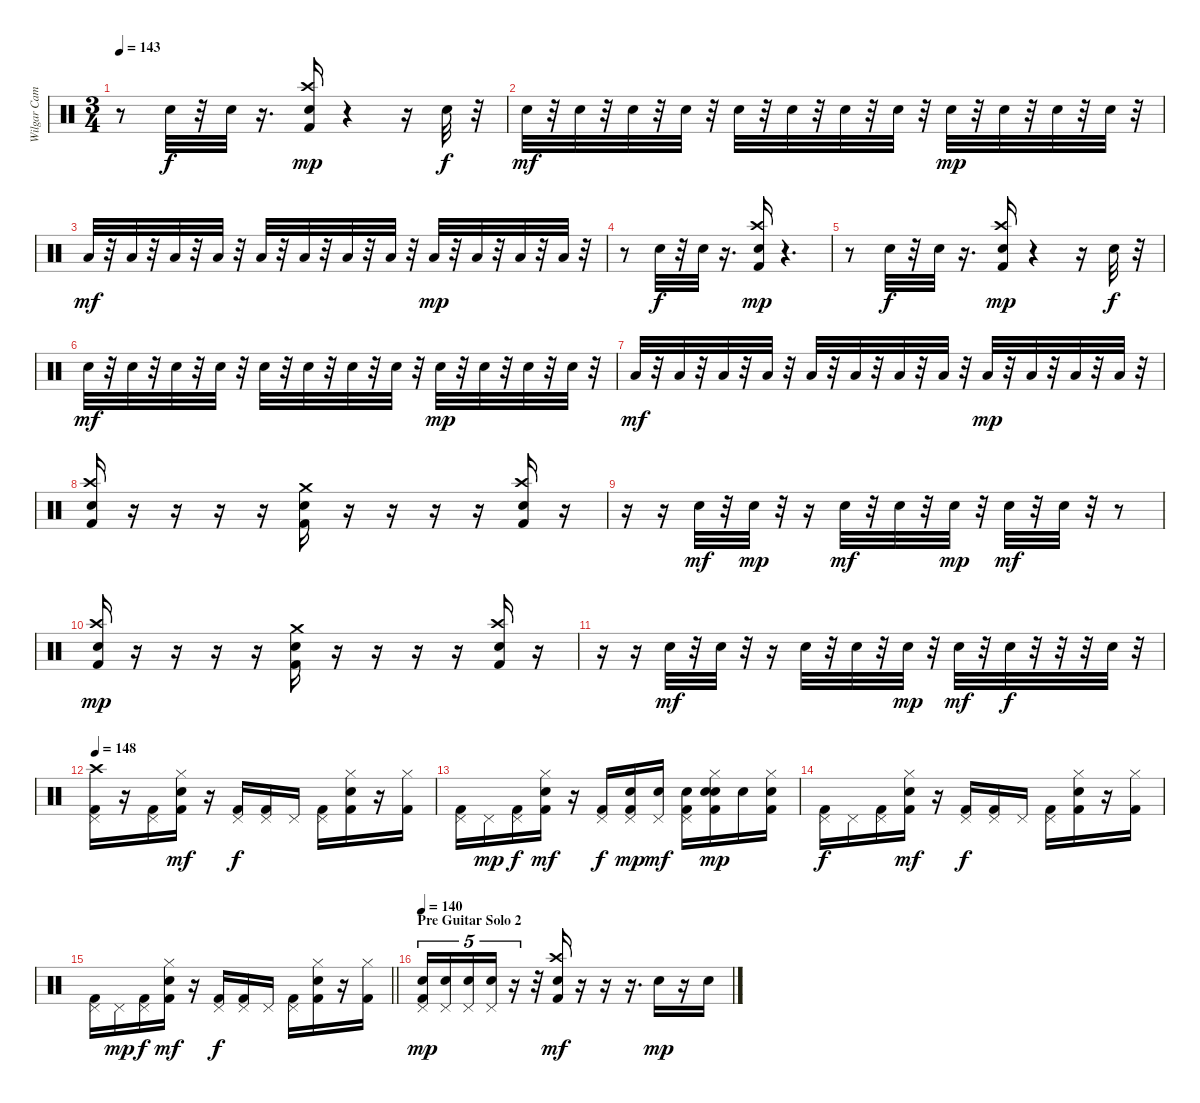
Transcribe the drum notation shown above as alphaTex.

\track ("Wilgar Campbell" "Wilgar Cam") {instrument percussion}
\staff {score}
\articulation defaults
\ts (3 4)
\tempo 143
\clef neutral
\ks c
r.8{dy mp} "Snare (hit) 2".32{dy f} r.32 "Snare (hit) 2".32 r.16{d} ("Crash high (hit)" "Snare (hit) 2" "Kick (hit) 2").16{dy mp} r.4 r.16 "Snare (hit) 2".32{dy f} r.32 |
"Snare (hit) 2".32{dy mf} r.32 "Snare (hit) 2".32 r.32 "Snare (hit) 2".32 r.32 "Snare (hit) 2".32 r.32 "Snare (hit) 2".32 r.32 "Snare (hit) 2".32 r.32 "Snare (hit) 2".32 r.32 "Snare (hit) 2".32 r.32 "Snare (hit) 2".32{dy mp} r.32 "Snare (hit) 2".32 r.32 "Snare (hit) 2".32 r.32 "Snare (hit) 2".32 r.32 |
"Low Tom (hit)".32{dy mf} r.32 "Low Tom (hit)".32 r.32 "Low Tom (hit)".32 r.32 "Low Tom (hit)".32 r.32 "Low Tom (hit)".32 r.32 "Low Tom (hit)".32 r.32 "Low Tom (hit)".32 r.32 "Low Tom (hit)".32 r.32 "Low Tom (hit)".32{dy mp} r.32 "Low Tom (hit)".32 r.32 "Low Tom (hit)".32 r.32 "Low Tom (hit)".32 r.32 |
r.8 "Snare (hit) 2".32{dy f} r.32 "Snare (hit) 2".32 r.16{d} ("Crash high (hit)" "Snare (hit) 2" "Kick (hit) 2").16{dy mp} r.4{d} |
r.8 "Snare (hit) 2".32{dy f} r.32 "Snare (hit) 2".32 r.16{d} ("Crash high (hit)" "Snare (hit) 2" "Kick (hit) 2").16{dy mp} r.4 r.16 "Snare (hit) 2".32{dy f} r.32 |
"Snare (hit) 2".32{dy mf} r.32 "Snare (hit) 2".32 r.32 "Snare (hit) 2".32 r.32 "Snare (hit) 2".32 r.32 "Snare (hit) 2".32 r.32 "Snare (hit) 2".32 r.32 "Snare (hit) 2".32 r.32 "Snare (hit) 2".32 r.32 "Snare (hit) 2".32{dy mp} r.32 "Snare (hit) 2".32 r.32 "Snare (hit) 2".32 r.32 "Snare (hit) 2".32 r.32 |
"Low Tom (hit)".32{dy mf} r.32 "Low Tom (hit)".32 r.32 "Low Tom (hit)".32 r.32 "Low Tom (hit)".32 r.32 "Low Tom (hit)".32 r.32 "Low Tom (hit)".32 r.32 "Low Tom (hit)".32 r.32 "Low Tom (hit)".32 r.32 "Low Tom (hit)".32{dy mp} r.32 "Low Tom (hit)".32 r.32 "Low Tom (hit)".32 r.32 "Low Tom (hit)".32 r.32 |
("Crash high (hit)" "Snare (hit) 2" "Kick (hit) 2").16 r.16 r.16 r.16 r.16 ("Crash medium (hit)" "Snare (hit) 2" "Kick (hit) 2").16 r.16 r.16 r.16 r.16 ("Crash high (hit)" "Snare (hit) 2" "Kick (hit) 2").16 r.16 |
r.16 r.16 "Snare (hit) 2".32{dy mf} r.32 "Electric Snare (hit)".32{dy mp} r.32 r.16 "Snare (hit) 2".32{dy mf} r.32 "Snare (hit) 2".32 r.32 "Snare (hit) 2".32{dy mp} r.32 "Snare (hit) 2".32{dy mf} r.32 "Electric Snare (hit)".32 r.32 r.8 |
("Crash high (hit)" "Snare (hit) 2" "Kick (hit) 2").16{dy mp} r.16 r.16 r.16 r.16 ("Crash medium (hit)" "Snare (hit) 2" "Kick (hit) 2").16 r.16 r.16 r.16 r.16 ("Crash high (hit)" "Snare (hit) 2" "Kick (hit) 2").16 r.16 |
r.16 r.16 "Snare (hit) 2".32{dy mf} r.32 "Snare (hit) 2".32 r.32 r.16 "Snare (hit) 2".32 r.32 "Snare (hit) 2".32 r.32 "Snare (hit) 2".32{dy mp} r.32 "Snare (hit) 2".32{dy mf} r.32 "Snare (hit) 2".32{dy f} r.32 r.32 r.32 "Snare (hit) 2".32 r.32 |
\tempo 148
("Crash high (hit)" "Pedal Hi-Hat (hit)" "Kick (hit) 2").16 r.16 ("Pedal Hi-Hat (hit)" "Kick (hit) 2").16 ("Snare (hit) 2" "Hi-Hat (closed)" "Kick (hit) 2").16{dy mf} r.16 ("Pedal Hi-Hat (hit)" "Kick (hit) 2").16{dy f} ("Pedal Hi-Hat (hit)" "Kick (hit) 2").16 "Pedal Hi-Hat (hit)".16 ("Pedal Hi-Hat (hit)" "Kick (hit) 2").16 ("Snare (hit) 2" "Hi-Hat (closed)" "Kick (hit) 2").16 r.16 ("Hi-Hat (closed)" "Kick (hit) 2").16 |
("Pedal Hi-Hat (hit)" "Kick (hit) 2").16 "Pedal Hi-Hat (hit)".16{dy mp} ("Pedal Hi-Hat (hit)" "Kick (hit) 2").16{dy f} ("Snare (hit) 2" "Hi-Hat (closed)" "Kick (hit) 2").16{dy mf} r.16 ("Pedal Hi-Hat (hit)" "Kick (hit) 2").16{dy f} ("Pedal Hi-Hat (hit)" "Snare (hit) 2" "Kick (hit) 2").16{dy mp} ("Pedal Hi-Hat (hit)" "Snare (hit) 2").16{dy mf} ("Pedal Hi-Hat (hit)" "Snare (hit) 2" "Kick (hit) 2").16 ("Snare (hit) 2" "Hi-Hat (closed)" "Snare (hit) 2" "Kick (hit) 2").16{dy mp} "Snare (hit) 2".16 ("Hi-Hat (closed)" "Snare (hit) 2" "Kick (hit) 2").16 |
("Pedal Hi-Hat (hit)" "Kick (hit) 2").16{dy f} "Pedal Hi-Hat (hit)".16 ("Pedal Hi-Hat (hit)" "Kick (hit) 2").16 ("Snare (hit) 2" "Hi-Hat (closed)" "Kick (hit) 2").16{dy mf} r.16 ("Pedal Hi-Hat (hit)" "Kick (hit) 2").16{dy f} ("Pedal Hi-Hat (hit)" "Kick (hit) 2").16 "Pedal Hi-Hat (hit)".16 ("Pedal Hi-Hat (hit)" "Kick (hit) 2").16 ("Snare (hit) 2" "Hi-Hat (closed)" "Kick (hit) 2").16 r.16 ("Hi-Hat (closed)" "Kick (hit) 2").16 |
\barLineRight lightlight
("Pedal Hi-Hat (hit)" "Kick (hit) 2").16 "Pedal Hi-Hat (hit)".16{dy mp} ("Pedal Hi-Hat (hit)" "Kick (hit) 2").16{dy f} ("Snare (hit) 2" "Hi-Hat (closed)" "Kick (hit) 2").16{dy mf} r.16 ("Pedal Hi-Hat (hit)" "Kick (hit) 2").16{dy f} ("Pedal Hi-Hat (hit)" "Kick (hit) 2").16 "Pedal Hi-Hat (hit)".16 ("Pedal Hi-Hat (hit)" "Kick (hit) 2").16 ("Snare (hit) 2" "Hi-Hat (closed)" "Kick (hit) 2").16 r.16 ("Hi-Hat (closed)" "Kick (hit) 2").16 |
\section ("" "Pre Guitar Solo 2")
\tempo 140
("Snare (hit) 2" "Pedal Hi-Hat (hit)" "Kick (hit) 2").16{tu (5 4) dy mp} ("Snare (hit) 2" "Pedal Hi-Hat (hit)").16{tu (5 4)} ("Snare (hit) 2" "Pedal Hi-Hat (hit)").16{tu (5 4)} ("Snare (hit) 2" "Pedal Hi-Hat (hit)").16{tu (5 4)} r.16{tu (5 4)} r.32 ("Crash high (hit)" "Snare (hit) 2" "Kick (hit) 2").16{dy mf} r.16 r.16 r.16{d} "Electric Snare (hit)".16{dy mp} r.16 "Electric Snare (hit)".16
